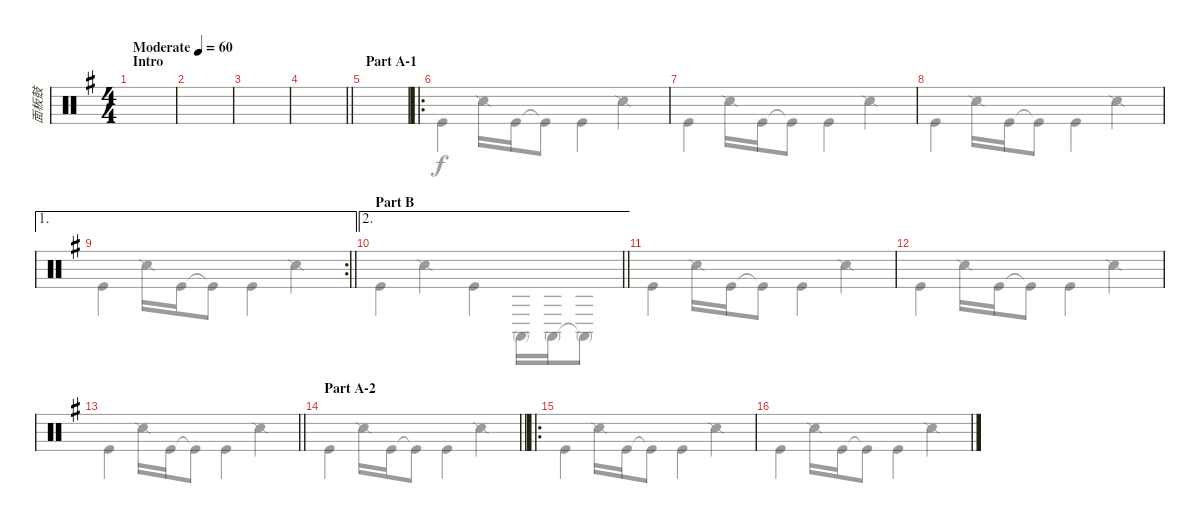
\track ("面板鼓" "面板鼓") {instrument percussion}
\staff {score}
\articulation defaults
\voice
\ts (4 4)
\section ("" "Intro")
\tempo (60 "Moderate")
\clef neutral
\ks g
|
|
|
\barLineRight lightlight
|
\section ("" "Part A-1")
|
\ro
|
|
|
\ae 1
\rc 2
\barLineRight lightlight
|
\ae 2
\section ("" "Part B")
\barLineRight lightlight
|
\section ("" "")
|
|
\barLineRight lightlight
|
\section ("" "Part A-2")
\barLineRight lightlight
|
\ro
\section ("" "")
|
\voice
\clef neutral
\ks g
|
|
|
\barLineRight lightlight
|
|
"Kick (hit)".4 "Snare (side stick) 2".16 "Kick (hit)".16 "Kick (hit)"{t}.8 "Kick (hit)".4 "Snare (side stick) 2".4 |
"Kick (hit)".4 "Snare (side stick) 2".16 "Kick (hit)".16 "Kick (hit)"{t}.8 "Kick (hit)".4 "Snare (side stick) 2".4 |
"Kick (hit)".4 "Snare (side stick) 2".16 "Kick (hit)".16 "Kick (hit)"{t}.8 "Kick (hit)".4 "Snare (side stick) 2".4 |
\barLineRight lightlight "Kick (hit)".4 "Snare (side stick) 2".16 "Kick (hit)".16 "Kick (hit)"{t}.8 "Kick (hit)".4 "Snare (side stick) 2".4
|
\barLineRight lightlight "Kick (hit)".4 "Snare (side stick) 2".4 "Kick (hit)".4 "Conga high (mute)".16 "Conga high (mute)".16 "Conga high (mute)"{t}.8
|
"Kick (hit)".4 "Snare (side stick) 2".16 "Kick (hit)".16 "Kick (hit)"{t}.8 "Kick (hit)".4 "Snare (side stick) 2".4 |
"Kick (hit)".4 "Snare (side stick) 2".16 "Kick (hit)".16 "Kick (hit)"{t}.8 "Kick (hit)".4 "Snare (side stick) 2".4 |
\barLineRight lightlight "Kick (hit)".4 "Snare (side stick) 2".16 "Kick (hit)".16 "Kick (hit)"{t}.8 "Kick (hit)".4 "Snare (side stick) 2".4
|
\barLineRight lightlight "Kick (hit)".4 "Snare (side stick) 2".16 "Kick (hit)".16 "Kick (hit)"{t}.8 "Kick (hit)".4 "Snare (side stick) 2".4
|
"Kick (hit)".4 "Snare (side stick) 2".16 "Kick (hit)".16 "Kick (hit)"{t}.8 "Kick (hit)".4 "Snare (side stick) 2".4 |
"Kick (hit)".4 "Snare (side stick) 2".16 "Kick (hit)".16 "Kick (hit)"{t}.8 "Kick (hit)".4 "Snare (side stick) 2".4
